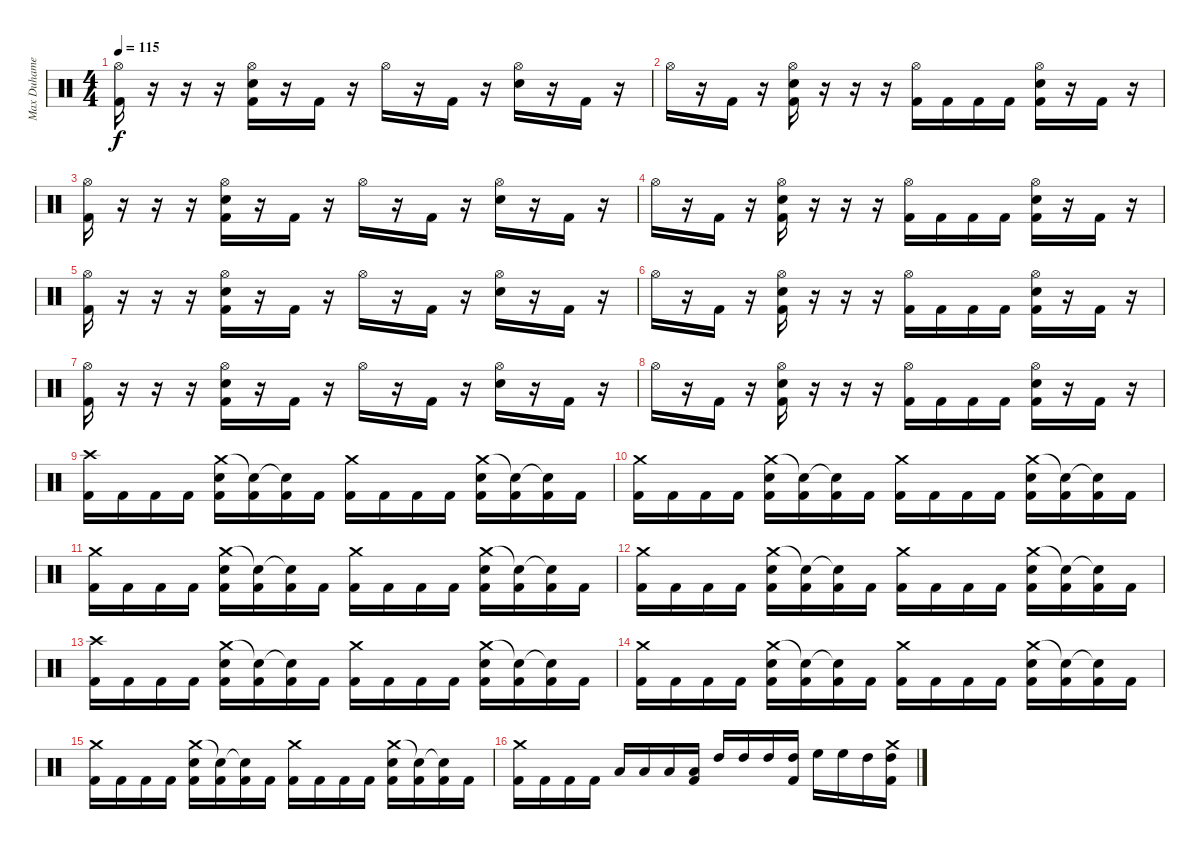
\track ("Max Duhamel (Drums)" "Max Duhame") {instrument percussion}
\staff {score}
\articulation defaults
\ts (4 4)
\tempo 115
\clef neutral
\ks c
("Hi-Hat (open)" "Kick (hit) 2").16{dy f} r.16 r.16 r.16 ("Hi-Hat (open)" "Electric Snare (hit)" "Kick (hit) 2").16 r.16 "Kick (hit) 2".16 r.16 "Hi-Hat (open)".16 r.16 "Kick (hit) 2".16 r.16 ("Hi-Hat (open)" "Electric Snare (hit)").16 r.16 "Kick (hit) 2".16 r.16 |
"Hi-Hat (open)".16 r.16 "Kick (hit) 2".16 r.16 ("Hi-Hat (open)" "Electric Snare (hit)" "Kick (hit) 2").16 r.16 r.16 r.16 ("Hi-Hat (open)" "Kick (hit) 2").16 "Kick (hit) 2".16 "Kick (hit) 2".16 "Kick (hit) 2".16 ("Hi-Hat (open)" "Electric Snare (hit)" "Kick (hit) 2").16 r.16 "Kick (hit) 2".16 r.16 |
("Hi-Hat (open)" "Kick (hit) 2").16 r.16 r.16 r.16 ("Hi-Hat (open)" "Electric Snare (hit)" "Kick (hit) 2").16 r.16 "Kick (hit) 2".16 r.16 "Hi-Hat (open)".16 r.16 "Kick (hit) 2".16 r.16 ("Hi-Hat (open)" "Electric Snare (hit)").16 r.16 "Kick (hit) 2".16 r.16 |
"Hi-Hat (open)".16 r.16 "Kick (hit) 2".16 r.16 ("Hi-Hat (open)" "Electric Snare (hit)" "Kick (hit) 2").16 r.16 r.16 r.16 ("Hi-Hat (open)" "Kick (hit) 2").16 "Kick (hit) 2".16 "Kick (hit) 2".16 "Kick (hit) 2".16 ("Hi-Hat (open)" "Electric Snare (hit)" "Kick (hit) 2").16 r.16 "Kick (hit) 2".16 r.16 |
("Hi-Hat (open)" "Kick (hit) 2").16 r.16 r.16 r.16 ("Hi-Hat (open)" "Electric Snare (hit)" "Kick (hit) 2").16 r.16 "Kick (hit) 2".16 r.16 "Hi-Hat (open)".16 r.16 "Kick (hit) 2".16 r.16 ("Hi-Hat (open)" "Electric Snare (hit)").16 r.16 "Kick (hit) 2".16 r.16 |
"Hi-Hat (open)".16 r.16 "Kick (hit) 2".16 r.16 ("Hi-Hat (open)" "Electric Snare (hit)" "Kick (hit) 2").16 r.16 r.16 r.16 ("Hi-Hat (open)" "Kick (hit) 2").16 "Kick (hit) 2".16 "Kick (hit) 2".16 "Kick (hit) 2".16 ("Hi-Hat (open)" "Electric Snare (hit)" "Kick (hit) 2").16 r.16 "Kick (hit) 2".16 r.16 |
("Hi-Hat (open)" "Kick (hit) 2").16 r.16 r.16 r.16 ("Hi-Hat (open)" "Electric Snare (hit)" "Kick (hit) 2").16 r.16 "Kick (hit) 2".16 r.16 "Hi-Hat (open)".16 r.16 "Kick (hit) 2".16 r.16 ("Hi-Hat (open)" "Electric Snare (hit)").16 r.16 "Kick (hit) 2".16 r.16 |
"Hi-Hat (open)".16 r.16 "Kick (hit) 2".16 r.16 ("Hi-Hat (open)" "Electric Snare (hit)" "Kick (hit) 2").16 r.16 r.16 r.16 ("Hi-Hat (open)" "Kick (hit) 2").16 "Kick (hit) 2".16 "Kick (hit) 2".16 "Kick (hit) 2".16 ("Hi-Hat (open)" "Electric Snare (hit)" "Kick (hit) 2").16 r.16 "Kick (hit) 2".16 r.16 |
("Crash high (hit)" "Kick (hit) 2").16 "Kick (hit) 2".16 "Kick (hit) 2".16 "Kick (hit) 2".16 ("Crash medium (hit)" "Electric Snare (hit)" "Kick (hit) 2").16 ("Snare (hit)"{t} "Kick (hit) 2").16 ("Snare (hit)"{t} "Kick (hit) 2").16 "Kick (hit) 2".16 ("Crash medium (hit)" "Kick (hit) 2").16 "Kick (hit) 2".16 "Kick (hit) 2".16 "Kick (hit) 2".16 ("Crash medium (hit)" "Electric Snare (hit)" "Kick (hit) 2").16 ("Snare (hit)"{t} "Kick (hit) 2").16 ("Snare (hit)"{t} "Kick (hit) 2").16 "Kick (hit) 2".16 |
("Crash medium (hit)" "Kick (hit) 2").16 "Kick (hit) 2".16 "Kick (hit) 2".16 "Kick (hit) 2".16 ("Crash medium (hit)" "Electric Snare (hit)" "Kick (hit) 2").16 ("Snare (hit)"{t} "Kick (hit) 2").16 ("Snare (hit)"{t} "Kick (hit) 2").16 "Kick (hit) 2".16 ("Crash medium (hit)" "Kick (hit) 2").16 "Kick (hit) 2".16 "Kick (hit) 2".16 "Kick (hit) 2".16 ("Crash medium (hit)" "Electric Snare (hit)" "Kick (hit) 2").16 ("Snare (hit)"{t} "Kick (hit) 2").16 ("Snare (hit)"{t} "Kick (hit) 2").16 "Kick (hit) 2".16 |
("Crash medium (hit)" "Kick (hit) 2").16 "Kick (hit) 2".16 "Kick (hit) 2".16 "Kick (hit) 2".16 ("Crash medium (hit)" "Electric Snare (hit)" "Kick (hit) 2").16 ("Snare (hit)"{t} "Kick (hit) 2").16 ("Snare (hit)"{t} "Kick (hit) 2").16 "Kick (hit) 2".16 ("Crash medium (hit)" "Kick (hit) 2").16 "Kick (hit) 2".16 "Kick (hit) 2".16 "Kick (hit) 2".16 ("Crash medium (hit)" "Electric Snare (hit)" "Kick (hit) 2").16 ("Snare (hit)"{t} "Kick (hit) 2").16 ("Snare (hit)"{t} "Kick (hit) 2").16 "Kick (hit) 2".16 |
("Crash medium (hit)" "Kick (hit) 2").16 "Kick (hit) 2".16 "Kick (hit) 2".16 "Kick (hit) 2".16 ("Crash medium (hit)" "Electric Snare (hit)" "Kick (hit) 2").16 ("Snare (hit)"{t} "Kick (hit) 2").16 ("Snare (hit)"{t} "Kick (hit) 2").16 "Kick (hit) 2".16 ("Crash medium (hit)" "Kick (hit) 2").16 "Kick (hit) 2".16 "Kick (hit) 2".16 "Kick (hit) 2".16 ("Crash medium (hit)" "Electric Snare (hit)" "Kick (hit) 2").16 ("Snare (hit)"{t} "Kick (hit) 2").16 ("Snare (hit)"{t} "Kick (hit) 2").16 "Kick (hit) 2".16 |
("Crash high (hit)" "Kick (hit) 2").16 "Kick (hit) 2".16 "Kick (hit) 2".16 "Kick (hit) 2".16 ("Crash medium (hit)" "Electric Snare (hit)" "Kick (hit) 2").16 ("Snare (hit)"{t} "Kick (hit) 2").16 ("Snare (hit)"{t} "Kick (hit) 2").16 "Kick (hit) 2".16 ("Crash medium (hit)" "Kick (hit) 2").16 "Kick (hit) 2".16 "Kick (hit) 2".16 "Kick (hit) 2".16 ("Crash medium (hit)" "Electric Snare (hit)" "Kick (hit) 2").16 ("Snare (hit)"{t} "Kick (hit) 2").16 ("Snare (hit)"{t} "Kick (hit) 2").16 "Kick (hit) 2".16 |
("Crash medium (hit)" "Kick (hit) 2").16 "Kick (hit) 2".16 "Kick (hit) 2".16 "Kick (hit) 2".16 ("Crash medium (hit)" "Electric Snare (hit)" "Kick (hit) 2").16 ("Snare (hit)"{t} "Kick (hit) 2").16 ("Snare (hit)"{t} "Kick (hit) 2").16 "Kick (hit) 2".16 ("Crash medium (hit)" "Kick (hit) 2").16 "Kick (hit) 2".16 "Kick (hit) 2".16 "Kick (hit) 2".16 ("Crash medium (hit)" "Electric Snare (hit)" "Kick (hit) 2").16 ("Snare (hit)"{t} "Kick (hit) 2").16 ("Snare (hit)"{t} "Kick (hit) 2").16 "Kick (hit) 2".16 |
("Crash medium (hit)" "Kick (hit) 2").16 "Kick (hit) 2".16 "Kick (hit) 2".16 "Kick (hit) 2".16 ("Crash medium (hit)" "Electric Snare (hit)" "Kick (hit) 2").16 ("Snare (hit)"{t} "Kick (hit) 2").16 ("Snare (hit)"{t} "Kick (hit) 2").16 "Kick (hit) 2".16 ("Crash medium (hit)" "Kick (hit) 2").16 "Kick (hit) 2".16 "Kick (hit) 2".16 "Kick (hit) 2".16 ("Crash medium (hit)" "Electric Snare (hit)" "Kick (hit) 2").16 ("Snare (hit)"{t} "Kick (hit) 2").16 ("Snare (hit)"{t} "Kick (hit) 2").16 "Kick (hit) 2".16 |
("Crash medium (hit)" "Kick (hit) 2").16 "Kick (hit) 2".16 "Kick (hit) 2".16 "Kick (hit) 2".16 "Low Tom (hit)".16 "Low Tom (hit)".16 "Low Tom (hit)".16 ("Low Tom (hit)" "Kick (hit) 2").16 "High Tom (hit)".16 "High Tom (hit)".16 "High Tom (hit)".16 ("High Tom (hit)" "Kick (hit) 2").16 "High Floor Tom (hit)".16 "High Floor Tom (hit)".16 "High Tom (hit)".16 ("Crash medium (hit)" "High Tom (hit)" "Kick (hit) 2").16
